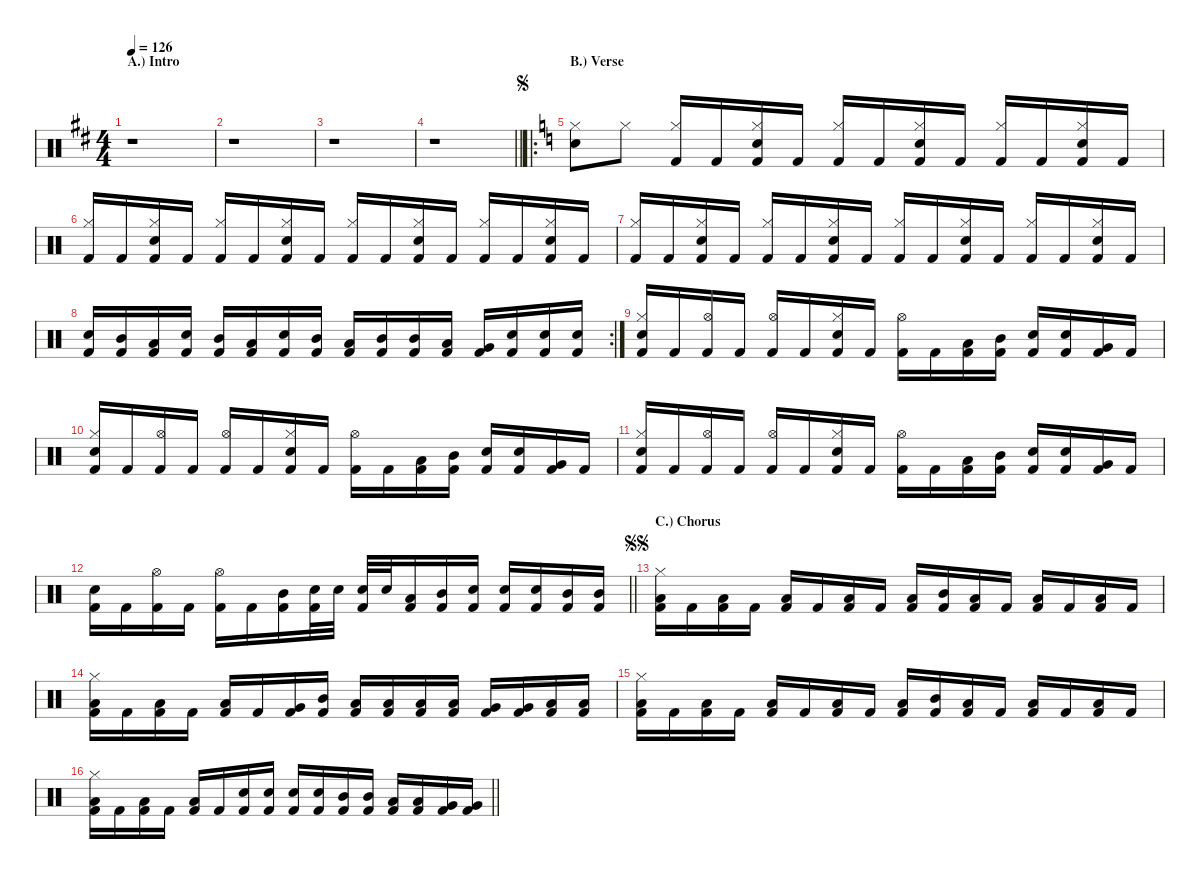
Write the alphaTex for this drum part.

\defaultSystemsLayout 4
\hideDynamics
\bracketExtendMode nobrackets
\singleTrackTrackNamePolicy hidden
\multiTrackTrackNamePolicy hidden
\firstSystemTrackNameMode fullname
\firstSystemTrackNameOrientation horizontal
\otherSystemsTrackNameOrientation horizontal
\track ("Drums" "drm.") {instrument percussion}
\staff {score}
\articulation defaults
\ts (4 4)
\beaming (8 2 2 2 2)
\section ("" "A.) Intro  ")
\tempo 126
\clef neutral
\ks d
r.1{dy f beam Down} |
r.1{beam Down} |
r.1{beam Down} |
\barLineRight lightlight
r.1{beam Down} |
\ro
\section ("" "B.) Verse")
\jump segno
\ks c
("Snare (hit) 2" "Hi-Hat (closed)").8{beam Down} "Hi-Hat (closed)".8{beam Down} ("Hi-Hat (closed)" "Kick (hit) 2").16{beam Up} "Kick (hit) 2".16{dy fff beam Up} ("Snare (hit) 2" "Hi-Hat (closed)" "Kick (hit) 2").16{dy f beam Up} "Kick (hit) 2".16{dy fff beam Up} ("Hi-Hat (closed)" "Kick (hit) 2").16{dy f beam Up} "Kick (hit) 2".16{dy fff beam Up} ("Snare (hit) 2" "Hi-Hat (closed)" "Kick (hit) 2").16{dy f beam Up} "Kick (hit) 2".16{dy fff beam Up} ("Hi-Hat (closed)" "Kick (hit) 2").16{dy f beam Up} "Kick (hit) 2".16{dy fff beam Up} ("Snare (hit) 2" "Hi-Hat (closed)" "Kick (hit) 2").16{dy f beam Up} "Kick (hit) 2".16{dy fff beam Up} |
("Hi-Hat (closed)" "Kick (hit) 2").16{dy f beam Up} "Kick (hit) 2".16{dy fff beam Up} ("Snare (hit) 2" "Hi-Hat (closed)" "Kick (hit) 2").16{dy f beam Up} "Kick (hit) 2".16{dy fff beam Up} ("Hi-Hat (closed)" "Kick (hit) 2").16{dy f beam Up} "Kick (hit) 2".16{dy fff beam Up} ("Snare (hit) 2" "Hi-Hat (closed)" "Kick (hit) 2").16{dy f beam Up} "Kick (hit) 2".16{dy fff beam Up} ("Hi-Hat (closed)" "Kick (hit) 2").16{dy f beam Up} "Kick (hit) 2".16{dy fff beam Up} ("Snare (hit) 2" "Hi-Hat (closed)" "Kick (hit) 2").16{dy f beam Up} "Kick (hit) 2".16{dy fff beam Up} ("Hi-Hat (closed)" "Kick (hit) 2").16{dy f beam Up} "Kick (hit) 2".16{dy fff beam Up} ("Snare (hit) 2" "Hi-Hat (closed)" "Kick (hit) 2").16{dy f beam Up} "Kick (hit) 2".16{dy fff beam Up} |
("Hi-Hat (closed)" "Kick (hit) 2").16{dy f beam Up} "Kick (hit) 2".16{dy fff beam Up} ("Snare (hit) 2" "Hi-Hat (closed)" "Kick (hit) 2").16{dy f beam Up} "Kick (hit) 2".16{dy fff beam Up} ("Hi-Hat (closed)" "Kick (hit) 2").16{dy f beam Up} "Kick (hit) 2".16{dy fff beam Up} ("Snare (hit) 2" "Hi-Hat (closed)" "Kick (hit) 2").16{dy f beam Up} "Kick (hit) 2".16{dy fff beam Up} ("Hi-Hat (closed)" "Kick (hit) 2").16{dy f beam Up} "Kick (hit) 2".16{dy fff beam Up} ("Snare (hit) 2" "Hi-Hat (closed)" "Kick (hit) 2").16{dy f beam Up} "Kick (hit) 2".16{dy fff beam Up} ("Hi-Hat (closed)" "Kick (hit) 2").16{dy f beam Up} "Kick (hit) 2".16{dy fff beam Up} ("Snare (hit) 2" "Hi-Hat (closed)" "Kick (hit) 2").16{dy f beam Up} "Kick (hit) 2".16{dy fff beam Up} |
\rc 2
("Snare (hit) 2" "Kick (hit) 2").16{beam Up} ("Mid Tom (hit)" "Kick (hit) 2").16{beam Up} ("Low Tom (hit)" "Kick (hit) 2").16{beam Up} ("Snare (hit) 2" "Kick (hit) 2").16{beam Up} ("Mid Tom (hit)" "Kick (hit) 2").16{beam Up} ("Low Tom (hit)" "Kick (hit) 2").16{beam Up} ("Snare (hit) 2" "Kick (hit) 2").16{beam Up} ("Mid Tom (hit)" "Kick (hit) 2").16{beam Up} ("Low Tom (hit)" "Kick (hit) 2").16{beam Up} ("Mid Tom (hit)" "Kick (hit) 2").16{beam Up} ("Mid Tom (hit)" "Kick (hit) 2").16{beam Up} ("Low Tom (hit)" "Kick (hit) 2").16{beam Up} ("Very Low Tom (hit)" "Kick (hit) 2").16{beam Up} ("Snare (hit) 2" "Kick (hit) 2").16{beam Up} ("Snare (hit) 2" "Kick (hit) 2").16{beam Up} ("Snare (hit) 2" "Kick (hit) 2").16{beam Up} |
("Snare (hit) 2" "Hi-Hat (closed)" "Kick (hit) 2").16{beam Up} "Kick (hit) 2".16{beam Up} ("Hi-Hat (open)" "Kick (hit) 2").16{dy f beam Up} "Kick (hit) 2".16{dy fff beam Up} ("Hi-Hat (open)" "Kick (hit) 2").16{dy f beam Up} "Kick (hit) 2".16{dy fff beam Up} ("Snare (hit) 2" "Hi-Hat (closed)" "Kick (hit) 2").16{beam Up} "Kick (hit) 2".16{beam Up} ("Hi-Hat (open)" "Kick (hit) 2").16{dy f beam Down} "Kick (hit) 2".16{dy fff beam Down} ("Low Tom (hit)" "Kick (hit) 2").16{beam Down} ("Mid Tom (hit)" "Kick (hit) 2").16{beam Down} ("Snare (hit) 2" "Kick (hit) 2").16{beam Up} ("Snare (hit) 2" "Kick (hit) 2").16{beam Up} ("Very Low Tom (hit)" "Kick (hit) 2").16{beam Up} "Kick (hit) 2".16{beam Up} |
("Snare (hit) 2" "Hi-Hat (closed)" "Kick (hit) 2").16{beam Up} "Kick (hit) 2".16{beam Up} ("Hi-Hat (open)" "Kick (hit) 2").16{dy f beam Up} "Kick (hit) 2".16{dy fff beam Up} ("Hi-Hat (open)" "Kick (hit) 2").16{dy f beam Up} "Kick (hit) 2".16{dy fff beam Up} ("Snare (hit) 2" "Hi-Hat (closed)" "Kick (hit) 2").16{beam Up} "Kick (hit) 2".16{beam Up} ("Hi-Hat (open)" "Kick (hit) 2").16{dy f beam Down} "Kick (hit) 2".16{dy fff beam Down} ("Low Tom (hit)" "Kick (hit) 2").16{beam Down} ("Mid Tom (hit)" "Kick (hit) 2").16{beam Down} ("Snare (hit) 2" "Kick (hit) 2").16{beam Up} ("Snare (hit) 2" "Kick (hit) 2").16{beam Up} ("Very Low Tom (hit)" "Kick (hit) 2").16{beam Up} "Kick (hit) 2".16{beam Up} |
("Snare (hit) 2" "Hi-Hat (closed)" "Kick (hit) 2").16{beam Up} "Kick (hit) 2".16{beam Up} ("Hi-Hat (open)" "Kick (hit) 2").16{dy f beam Up} "Kick (hit) 2".16{dy fff beam Up} ("Hi-Hat (open)" "Kick (hit) 2").16{dy f beam Up} "Kick (hit) 2".16{dy fff beam Up} ("Snare (hit) 2" "Hi-Hat (closed)" "Kick (hit) 2").16{beam Up} "Kick (hit) 2".16{beam Up} ("Hi-Hat (open)" "Kick (hit) 2").16{dy f beam Down} "Kick (hit) 2".16{dy fff beam Down} ("Low Tom (hit)" "Kick (hit) 2").16{beam Down} ("Mid Tom (hit)" "Kick (hit) 2").16{beam Down} ("Snare (hit) 2" "Kick (hit) 2").16{beam Up} ("Snare (hit) 2" "Kick (hit) 2").16{beam Up} ("Very Low Tom (hit)" "Kick (hit) 2").16{beam Up} "Kick (hit) 2".16{beam Up} |
\barLineRight lightlight
("Snare (hit) 2" "Kick (hit) 2").16{beam Down} "Kick (hit) 2".16{beam Down} ("Hi-Hat (open)" "Kick (hit) 2").16{beam Down} "Kick (hit) 2".16{beam Down} ("Hi-Hat (open)" "Kick (hit) 2").16{beam Down} "Kick (hit) 2".16{beam Down} ("Mid Tom (hit)" "Kick (hit) 2").16{beam Down} ("Snare (hit) 2" "Kick (hit) 2").32{beam Down} "Snare (hit) 2".32{beam Down} ("Snare (hit) 2" "Kick (hit) 2").32{dy f beam Up} "Snare (hit) 2".32{beam Up} ("Low Tom (hit)" "Kick (hit) 2").16{dy fff beam Up} ("Mid Tom (hit)" "Kick (hit) 2").16{beam Up} ("Snare (hit) 2" "Kick (hit) 2").16{beam Up} ("Snare (hit) 2" "Kick (hit) 2").16{beam Up} ("Snare (hit) 2" "Kick (hit) 2").16{beam Up} ("Mid Tom (hit)" "Kick (hit) 2").16{beam Up} ("Mid Tom (hit)" "Kick (hit) 2").16{dy f beam Up} |
\section ("" "C.) Chorus")
\jump segnosegno
("Hi-Hat (closed)" "Low Tom (hit)" "Kick (hit) 2").16{beam Down} "Kick (hit) 2".16{beam Down} ("Low Tom (hit)" "Kick (hit) 2").16{beam Down} "Kick (hit) 2".16{beam Down} ("Low Tom (hit)" "Kick (hit) 2").16{beam Up} "Kick (hit) 2".16{beam Up} ("Low Tom (hit)" "Kick (hit) 2").16{beam Up} "Kick (hit) 2".16{beam Up} ("Low Tom (hit)" "Kick (hit) 2").16{beam Up} ("Mid Tom (hit)" "Kick (hit) 2").16{beam Up} ("Low Tom (hit)" "Kick (hit) 2").16{beam Up} "Kick (hit) 2".16{beam Up} ("Low Tom (hit)" "Kick (hit) 2").16{beam Up} "Kick (hit) 2".16{beam Up} ("Low Tom (hit)" "Kick (hit) 2").16{beam Up} "Kick (hit) 2".16{beam Up} |
("Hi-Hat (closed)" "Low Tom (hit)" "Kick (hit) 2").16{beam Down} "Kick (hit) 2".16{beam Down} ("Low Tom (hit)" "Kick (hit) 2").16{beam Down} "Kick (hit) 2".16{beam Down} ("Low Tom (hit)" "Kick (hit) 2").16{beam Up} "Kick (hit) 2".16{beam Up} ("Very Low Tom (hit)" "Kick (hit) 2").16{beam Up} ("Mid Tom (hit)" "Kick (hit) 2").16{beam Up} ("Low Tom (hit)" "Kick (hit) 2").16{beam Up} ("Low Tom (hit)" "Kick (hit) 2").16{beam Up} ("Low Tom (hit)" "Kick (hit) 2").16{beam Up} ("Low Tom (hit)" "Kick (hit) 2").16{beam Up} ("Very Low Tom (hit)" "Kick (hit) 2").16{beam Up} ("Very Low Tom (hit)" "Kick (hit) 2").16{beam Up} ("Low Floor Tom (hit)" "Kick (hit) 2").16{beam Up} ("Low Floor Tom (hit)" "Kick (hit) 2").16{beam Up} |
("Hi-Hat (closed)" "Low Tom (hit)" "Kick (hit) 2").16{beam Down} "Kick (hit) 2".16{beam Down} ("Low Tom (hit)" "Kick (hit) 2").16{beam Down} "Kick (hit) 2".16{beam Down} ("Low Tom (hit)" "Kick (hit) 2").16{beam Up} "Kick (hit) 2".16{beam Up} ("Low Tom (hit)" "Kick (hit) 2").16{beam Up} "Kick (hit) 2".16{beam Up} ("Low Tom (hit)" "Kick (hit) 2").16{beam Up} ("Mid Tom (hit)" "Kick (hit) 2").16{beam Up} ("Low Tom (hit)" "Kick (hit) 2").16{beam Up} "Kick (hit) 2".16{beam Up} ("Low Tom (hit)" "Kick (hit) 2").16{beam Up} "Kick (hit) 2".16{beam Up} ("Low Tom (hit)" "Kick (hit) 2").16{beam Up} "Kick (hit) 2".16{beam Up} |
\barLineRight lightlight
("Hi-Hat (closed)" "Low Tom (hit)" "Kick (hit) 2").16{beam Down} "Kick (hit) 2".16{beam Down} ("Low Tom (hit)" "Kick (hit) 2").16{beam Down} "Kick (hit) 2".16{beam Down} ("Low Tom (hit)" "Kick (hit) 2").16{beam Up} "Kick (hit) 2".16{beam Up} ("Snare (hit) 2" "Kick (hit) 2").16{beam Up} ("Snare (hit) 2" "Kick (hit) 2").16{beam Up} ("Snare (hit) 2" "Kick (hit) 2").16{beam Up} ("Snare (hit) 2" "Kick (hit) 2").16{beam Up} ("Mid Tom (hit)" "Kick (hit) 2").16{beam Up} ("Mid Tom (hit)" "Kick (hit) 2").16{beam Up} ("Low Tom (hit)" "Kick (hit) 2").16{beam Up} ("Low Tom (hit)" "Kick (hit) 2").16{beam Up} ("Very Low Tom (hit)" "Kick (hit) 2").16{beam Up} ("Very Low Tom (hit)" "Kick (hit) 2").16{beam Up}
